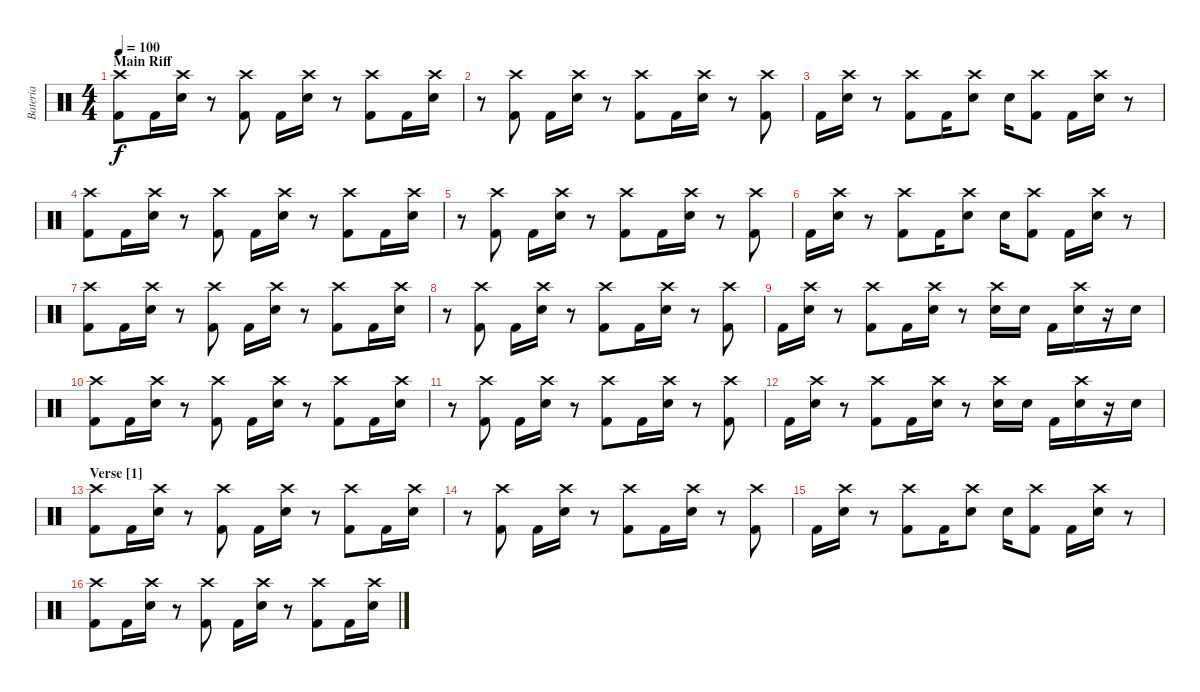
\track ("Bateria" "Bateria") {instrument percussion}
\staff {score}
\articulation defaults
\ts (4 4)
\section ("" "Main Riff")
\tempo 100
\clef neutral
\ks c
("Crash high (hit)" "Kick (hit) 2").8{dy f} "Kick (hit) 2".16 ("Crash high (hit)" "Electric Snare (hit)").16 r.8 ("Crash high (hit)" "Kick (hit) 2").8 "Kick (hit) 2".16 ("Crash high (hit)" "Electric Snare (hit)").16 r.8 ("Crash high (hit)" "Kick (hit) 2").8 "Kick (hit) 2".16 ("Crash high (hit)" "Electric Snare (hit)").16 |
r.8 ("Crash high (hit)" "Kick (hit) 2").8 "Kick (hit) 2".16 ("Crash high (hit)" "Electric Snare (hit)").16 r.8 ("Crash high (hit)" "Kick (hit) 2").8 "Kick (hit) 2".16 ("Crash high (hit)" "Electric Snare (hit)").16 r.8 ("Crash high (hit)" "Kick (hit) 2").8 |
"Kick (hit) 2".16 ("Crash high (hit)" "Electric Snare (hit)").16 r.8 ("Crash high (hit)" "Kick (hit) 2").8 "Kick (hit) 2".16 ("Crash high (hit)" "Electric Snare (hit)").8 "Electric Snare (hit)".16 ("Crash high (hit)" "Kick (hit) 2").8 "Kick (hit) 2".16 ("Crash high (hit)" "Electric Snare (hit)").16 r.8 |
("Crash high (hit)" "Kick (hit) 2").8 "Kick (hit) 2".16 ("Crash high (hit)" "Electric Snare (hit)").16 r.8 ("Crash high (hit)" "Kick (hit) 2").8 "Kick (hit) 2".16 ("Crash high (hit)" "Electric Snare (hit)").16 r.8 ("Crash high (hit)" "Kick (hit) 2").8 "Kick (hit) 2".16 ("Crash high (hit)" "Electric Snare (hit)").16 |
r.8 ("Crash high (hit)" "Kick (hit) 2").8 "Kick (hit) 2".16 ("Crash high (hit)" "Electric Snare (hit)").16 r.8 ("Crash high (hit)" "Kick (hit) 2").8 "Kick (hit) 2".16 ("Crash high (hit)" "Electric Snare (hit)").16 r.8 ("Crash high (hit)" "Kick (hit) 2").8 |
"Kick (hit) 2".16 ("Crash high (hit)" "Electric Snare (hit)").16 r.8 ("Crash high (hit)" "Kick (hit) 2").8 "Kick (hit) 2".16 ("Crash high (hit)" "Electric Snare (hit)").8 "Electric Snare (hit)".16 ("Crash high (hit)" "Kick (hit) 2").8 "Kick (hit) 2".16 ("Crash high (hit)" "Electric Snare (hit)").16 r.8 |
("Crash high (hit)" "Kick (hit) 2").8 "Kick (hit) 2".16 ("Crash high (hit)" "Electric Snare (hit)").16 r.8 ("Crash high (hit)" "Kick (hit) 2").8 "Kick (hit) 2".16 ("Crash high (hit)" "Electric Snare (hit)").16 r.8 ("Crash high (hit)" "Kick (hit) 2").8 "Kick (hit) 2".16 ("Crash high (hit)" "Electric Snare (hit)").16 |
r.8 ("Crash high (hit)" "Kick (hit) 2").8 "Kick (hit) 2".16 ("Crash high (hit)" "Electric Snare (hit)").16 r.8 ("Crash high (hit)" "Kick (hit) 2").8 "Kick (hit) 2".16 ("Crash high (hit)" "Electric Snare (hit)").16 r.8 ("Crash high (hit)" "Kick (hit) 2").8 |
"Kick (hit) 2".16 ("Crash high (hit)" "Electric Snare (hit)").16 r.8 ("Crash high (hit)" "Kick (hit) 2").8 "Kick (hit) 2".16 ("Crash high (hit)" "Electric Snare (hit)").16 r.8 ("Crash high (hit)" "Electric Snare (hit)").16 "Electric Snare (hit)".16 "Kick (hit) 2".16 ("Crash high (hit)" "Electric Snare (hit)").16 r.16 "Electric Snare (hit)".16 |
("Crash high (hit)" "Kick (hit) 2").8 "Kick (hit) 2".16 ("Crash high (hit)" "Electric Snare (hit)").16 r.8 ("Crash high (hit)" "Kick (hit) 2").8 "Kick (hit) 2".16 ("Crash high (hit)" "Electric Snare (hit)").16 r.8 ("Crash high (hit)" "Kick (hit) 2").8 "Kick (hit) 2".16 ("Crash high (hit)" "Electric Snare (hit)").16 |
r.8 ("Crash high (hit)" "Kick (hit) 2").8 "Kick (hit) 2".16 ("Crash high (hit)" "Electric Snare (hit)").16 r.8 ("Crash high (hit)" "Kick (hit) 2").8 "Kick (hit) 2".16 ("Crash high (hit)" "Electric Snare (hit)").16 r.8 ("Crash high (hit)" "Kick (hit) 2").8 |
"Kick (hit) 2".16 ("Crash high (hit)" "Electric Snare (hit)").16 r.8 ("Crash high (hit)" "Kick (hit) 2").8 "Kick (hit) 2".16 ("Crash high (hit)" "Electric Snare (hit)").16 r.8 ("Crash high (hit)" "Electric Snare (hit)").16 "Electric Snare (hit)".16 "Kick (hit) 2".16 ("Crash high (hit)" "Electric Snare (hit)").16 r.16 "Electric Snare (hit)".16 |
\section ("" "Verse [1]")
("Crash high (hit)" "Kick (hit) 2").8 "Kick (hit) 2".16 ("Crash high (hit)" "Electric Snare (hit)").16 r.8 ("Crash high (hit)" "Kick (hit) 2").8 "Kick (hit) 2".16 ("Crash high (hit)" "Electric Snare (hit)").16 r.8 ("Crash high (hit)" "Kick (hit) 2").8 "Kick (hit) 2".16 ("Crash high (hit)" "Electric Snare (hit)").16 |
r.8 ("Crash high (hit)" "Kick (hit) 2").8 "Kick (hit) 2".16 ("Crash high (hit)" "Electric Snare (hit)").16 r.8 ("Crash high (hit)" "Kick (hit) 2").8 "Kick (hit) 2".16 ("Crash high (hit)" "Electric Snare (hit)").16 r.8 ("Crash high (hit)" "Kick (hit) 2").8 |
"Kick (hit) 2".16 ("Crash high (hit)" "Electric Snare (hit)").16 r.8 ("Crash high (hit)" "Kick (hit) 2").8 "Kick (hit) 2".16 ("Crash high (hit)" "Electric Snare (hit)").8 "Electric Snare (hit)".16 ("Crash high (hit)" "Kick (hit) 2").8 "Kick (hit) 2".16 ("Crash high (hit)" "Electric Snare (hit)").16 r.8 |
("Crash high (hit)" "Kick (hit) 2").8 "Kick (hit) 2".16 ("Crash high (hit)" "Electric Snare (hit)").16 r.8 ("Crash high (hit)" "Kick (hit) 2").8 "Kick (hit) 2".16 ("Crash high (hit)" "Electric Snare (hit)").16 r.8 ("Crash high (hit)" "Kick (hit) 2").8 "Kick (hit) 2".16 ("Crash high (hit)" "Electric Snare (hit)").16
